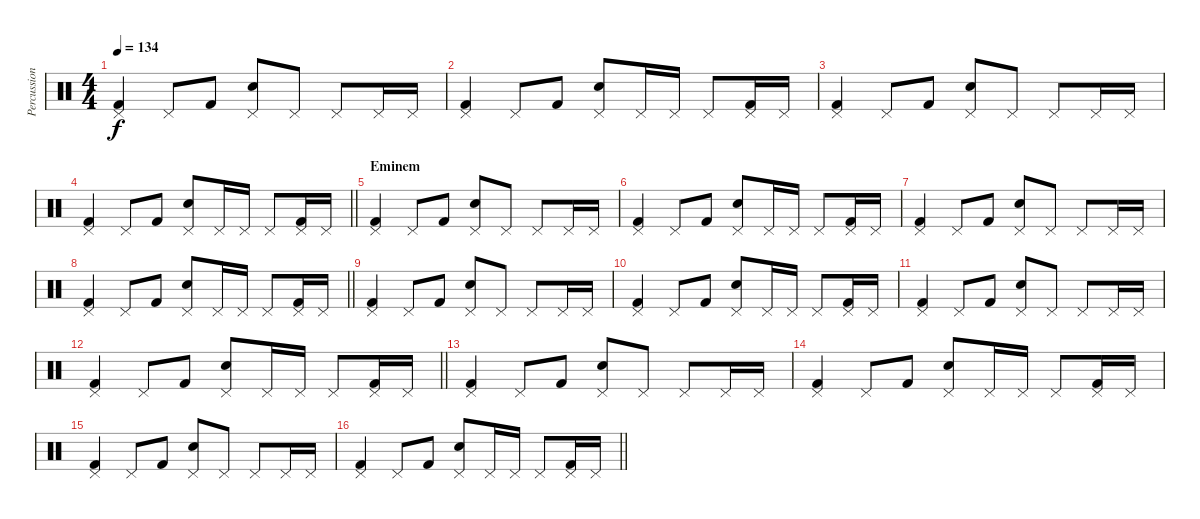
\track ("Percussion" "Percussion") {instrument percussion}
\staff {score}
\articulation defaults
\ts (4 4)
\tempo 134
\clef neutral
\ks c
("Pedal Hi-Hat (hit)" "Kick (hit) 2").4{dy f} "Pedal Hi-Hat (hit)".8 "Kick (hit) 2".8 ("Pedal Hi-Hat (hit)" "Electric Snare (hit)").8 "Pedal Hi-Hat (hit)".8 "Pedal Hi-Hat (hit)".8 "Pedal Hi-Hat (hit)".16 "Pedal Hi-Hat (hit)".16 |
("Pedal Hi-Hat (hit)" "Kick (hit) 2").4 "Pedal Hi-Hat (hit)".8 "Kick (hit) 2".8 ("Pedal Hi-Hat (hit)" "Electric Snare (hit)").8 "Pedal Hi-Hat (hit)".16 "Pedal Hi-Hat (hit)".16 "Pedal Hi-Hat (hit)".8 ("Pedal Hi-Hat (hit)" "Kick (hit) 2").16 "Pedal Hi-Hat (hit)".16 |
("Pedal Hi-Hat (hit)" "Kick (hit) 2").4 "Pedal Hi-Hat (hit)".8 "Kick (hit) 2".8 ("Pedal Hi-Hat (hit)" "Electric Snare (hit)").8 "Pedal Hi-Hat (hit)".8 "Pedal Hi-Hat (hit)".8 "Pedal Hi-Hat (hit)".16 "Pedal Hi-Hat (hit)".16 |
\barLineRight lightlight
("Pedal Hi-Hat (hit)" "Kick (hit) 2").4 "Pedal Hi-Hat (hit)".8 "Kick (hit) 2".8 ("Pedal Hi-Hat (hit)" "Electric Snare (hit)").8 "Pedal Hi-Hat (hit)".16 "Pedal Hi-Hat (hit)".16 "Pedal Hi-Hat (hit)".8 ("Pedal Hi-Hat (hit)" "Kick (hit) 2").16 "Pedal Hi-Hat (hit)".16 |
\section ("" "Eminem")
("Pedal Hi-Hat (hit)" "Kick (hit) 2").4 "Pedal Hi-Hat (hit)".8 "Kick (hit) 2".8 ("Pedal Hi-Hat (hit)" "Electric Snare (hit)").8 "Pedal Hi-Hat (hit)".8 "Pedal Hi-Hat (hit)".8 "Pedal Hi-Hat (hit)".16 "Pedal Hi-Hat (hit)".16 |
("Pedal Hi-Hat (hit)" "Kick (hit) 2").4 "Pedal Hi-Hat (hit)".8 "Kick (hit) 2".8 ("Pedal Hi-Hat (hit)" "Electric Snare (hit)").8 "Pedal Hi-Hat (hit)".16 "Pedal Hi-Hat (hit)".16 "Pedal Hi-Hat (hit)".8 ("Pedal Hi-Hat (hit)" "Kick (hit) 2").16 "Pedal Hi-Hat (hit)".16 |
("Pedal Hi-Hat (hit)" "Kick (hit) 2").4 "Pedal Hi-Hat (hit)".8 "Kick (hit) 2".8 ("Pedal Hi-Hat (hit)" "Electric Snare (hit)").8 "Pedal Hi-Hat (hit)".8 "Pedal Hi-Hat (hit)".8 "Pedal Hi-Hat (hit)".16 "Pedal Hi-Hat (hit)".16 |
\barLineRight lightlight
("Pedal Hi-Hat (hit)" "Kick (hit) 2").4 "Pedal Hi-Hat (hit)".8 "Kick (hit) 2".8 ("Pedal Hi-Hat (hit)" "Electric Snare (hit)").8 "Pedal Hi-Hat (hit)".16 "Pedal Hi-Hat (hit)".16 "Pedal Hi-Hat (hit)".8 ("Pedal Hi-Hat (hit)" "Kick (hit) 2").16 "Pedal Hi-Hat (hit)".16 |
("Pedal Hi-Hat (hit)" "Kick (hit) 2").4 "Pedal Hi-Hat (hit)".8 "Kick (hit) 2".8 ("Pedal Hi-Hat (hit)" "Electric Snare (hit)").8 "Pedal Hi-Hat (hit)".8 "Pedal Hi-Hat (hit)".8 "Pedal Hi-Hat (hit)".16 "Pedal Hi-Hat (hit)".16 |
("Pedal Hi-Hat (hit)" "Kick (hit) 2").4 "Pedal Hi-Hat (hit)".8 "Kick (hit) 2".8 ("Pedal Hi-Hat (hit)" "Electric Snare (hit)").8 "Pedal Hi-Hat (hit)".16 "Pedal Hi-Hat (hit)".16 "Pedal Hi-Hat (hit)".8 ("Pedal Hi-Hat (hit)" "Kick (hit) 2").16 "Pedal Hi-Hat (hit)".16 |
("Pedal Hi-Hat (hit)" "Kick (hit) 2").4 "Pedal Hi-Hat (hit)".8 "Kick (hit) 2".8 ("Pedal Hi-Hat (hit)" "Electric Snare (hit)").8 "Pedal Hi-Hat (hit)".8 "Pedal Hi-Hat (hit)".8 "Pedal Hi-Hat (hit)".16 "Pedal Hi-Hat (hit)".16 |
\barLineRight lightlight
("Pedal Hi-Hat (hit)" "Kick (hit) 2").4 "Pedal Hi-Hat (hit)".8 "Kick (hit) 2".8 ("Pedal Hi-Hat (hit)" "Electric Snare (hit)").8 "Pedal Hi-Hat (hit)".16 "Pedal Hi-Hat (hit)".16 "Pedal Hi-Hat (hit)".8 ("Pedal Hi-Hat (hit)" "Kick (hit) 2").16 "Pedal Hi-Hat (hit)".16 |
("Pedal Hi-Hat (hit)" "Kick (hit) 2").4 "Pedal Hi-Hat (hit)".8 "Kick (hit) 2".8 ("Pedal Hi-Hat (hit)" "Electric Snare (hit)").8 "Pedal Hi-Hat (hit)".8 "Pedal Hi-Hat (hit)".8 "Pedal Hi-Hat (hit)".16 "Pedal Hi-Hat (hit)".16 |
("Pedal Hi-Hat (hit)" "Kick (hit) 2").4 "Pedal Hi-Hat (hit)".8 "Kick (hit) 2".8 ("Pedal Hi-Hat (hit)" "Electric Snare (hit)").8 "Pedal Hi-Hat (hit)".16 "Pedal Hi-Hat (hit)".16 "Pedal Hi-Hat (hit)".8 ("Pedal Hi-Hat (hit)" "Kick (hit) 2").16 "Pedal Hi-Hat (hit)".16 |
("Pedal Hi-Hat (hit)" "Kick (hit) 2").4 "Pedal Hi-Hat (hit)".8 "Kick (hit) 2".8 ("Pedal Hi-Hat (hit)" "Electric Snare (hit)").8 "Pedal Hi-Hat (hit)".8 "Pedal Hi-Hat (hit)".8 "Pedal Hi-Hat (hit)".16 "Pedal Hi-Hat (hit)".16 |
\barLineRight lightlight
("Pedal Hi-Hat (hit)" "Kick (hit) 2").4 "Pedal Hi-Hat (hit)".8 "Kick (hit) 2".8 ("Pedal Hi-Hat (hit)" "Electric Snare (hit)").8 "Pedal Hi-Hat (hit)".16 "Pedal Hi-Hat (hit)".16 "Pedal Hi-Hat (hit)".8 ("Pedal Hi-Hat (hit)" "Kick (hit) 2").16 "Pedal Hi-Hat (hit)".16
